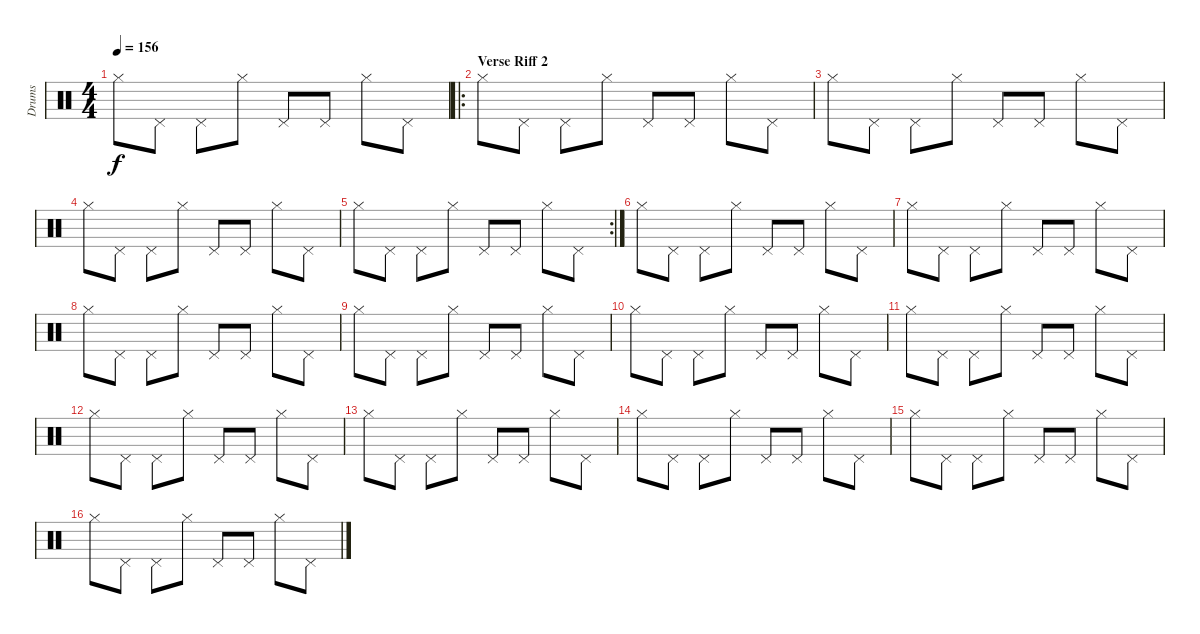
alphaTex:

\track ("Drums" "Drums") {instrument percussion}
\staff {score}
\articulation defaults
\ts (4 4)
\tempo 156
\clef neutral
\ks c "Hi-Hat (closed)".8{dy f} "Pedal Hi-Hat (hit)".8 "Pedal Hi-Hat (hit)".8 "Hi-Hat (closed)".8 "Pedal Hi-Hat (hit)".8 "Pedal Hi-Hat (hit)".8 "Hi-Hat (closed)".8 "Pedal Hi-Hat (hit)".8
|
\ro
\section ("" "Verse Riff 2")
"Hi-Hat (closed)".8 "Pedal Hi-Hat (hit)".8 "Pedal Hi-Hat (hit)".8 "Hi-Hat (closed)".8 "Pedal Hi-Hat (hit)".8 "Pedal Hi-Hat (hit)".8 "Hi-Hat (closed)".8 "Pedal Hi-Hat (hit)".8 |
"Hi-Hat (closed)".8 "Pedal Hi-Hat (hit)".8 "Pedal Hi-Hat (hit)".8 "Hi-Hat (closed)".8 "Pedal Hi-Hat (hit)".8 "Pedal Hi-Hat (hit)".8 "Hi-Hat (closed)".8 "Pedal Hi-Hat (hit)".8 |
"Hi-Hat (closed)".8 "Pedal Hi-Hat (hit)".8 "Pedal Hi-Hat (hit)".8 "Hi-Hat (closed)".8 "Pedal Hi-Hat (hit)".8 "Pedal Hi-Hat (hit)".8 "Hi-Hat (closed)".8 "Pedal Hi-Hat (hit)".8 |
\rc 2 "Hi-Hat (closed)".8 "Pedal Hi-Hat (hit)".8 "Pedal Hi-Hat (hit)".8 "Hi-Hat (closed)".8 "Pedal Hi-Hat (hit)".8 "Pedal Hi-Hat (hit)".8 "Hi-Hat (closed)".8 "Pedal Hi-Hat (hit)".8
|
"Hi-Hat (closed)".8 "Pedal Hi-Hat (hit)".8 "Pedal Hi-Hat (hit)".8 "Hi-Hat (closed)".8 "Pedal Hi-Hat (hit)".8 "Pedal Hi-Hat (hit)".8 "Hi-Hat (closed)".8 "Pedal Hi-Hat (hit)".8 |
"Hi-Hat (closed)".8 "Pedal Hi-Hat (hit)".8 "Pedal Hi-Hat (hit)".8 "Hi-Hat (closed)".8 "Pedal Hi-Hat (hit)".8 "Pedal Hi-Hat (hit)".8 "Hi-Hat (closed)".8 "Pedal Hi-Hat (hit)".8 |
"Hi-Hat (closed)".8 "Pedal Hi-Hat (hit)".8 "Pedal Hi-Hat (hit)".8 "Hi-Hat (closed)".8 "Pedal Hi-Hat (hit)".8 "Pedal Hi-Hat (hit)".8 "Hi-Hat (closed)".8 "Pedal Hi-Hat (hit)".8 |
"Hi-Hat (closed)".8 "Pedal Hi-Hat (hit)".8 "Pedal Hi-Hat (hit)".8 "Hi-Hat (closed)".8 "Pedal Hi-Hat (hit)".8 "Pedal Hi-Hat (hit)".8 "Hi-Hat (closed)".8 "Pedal Hi-Hat (hit)".8 |
"Hi-Hat (closed)".8 "Pedal Hi-Hat (hit)".8 "Pedal Hi-Hat (hit)".8 "Hi-Hat (closed)".8 "Pedal Hi-Hat (hit)".8 "Pedal Hi-Hat (hit)".8 "Hi-Hat (closed)".8 "Pedal Hi-Hat (hit)".8 |
"Hi-Hat (closed)".8 "Pedal Hi-Hat (hit)".8 "Pedal Hi-Hat (hit)".8 "Hi-Hat (closed)".8 "Pedal Hi-Hat (hit)".8 "Pedal Hi-Hat (hit)".8 "Hi-Hat (closed)".8 "Pedal Hi-Hat (hit)".8 |
"Hi-Hat (closed)".8 "Pedal Hi-Hat (hit)".8 "Pedal Hi-Hat (hit)".8 "Hi-Hat (closed)".8 "Pedal Hi-Hat (hit)".8 "Pedal Hi-Hat (hit)".8 "Hi-Hat (closed)".8 "Pedal Hi-Hat (hit)".8 |
"Hi-Hat (closed)".8 "Pedal Hi-Hat (hit)".8 "Pedal Hi-Hat (hit)".8 "Hi-Hat (closed)".8 "Pedal Hi-Hat (hit)".8 "Pedal Hi-Hat (hit)".8 "Hi-Hat (closed)".8 "Pedal Hi-Hat (hit)".8 |
"Hi-Hat (closed)".8 "Pedal Hi-Hat (hit)".8 "Pedal Hi-Hat (hit)".8 "Hi-Hat (closed)".8 "Pedal Hi-Hat (hit)".8 "Pedal Hi-Hat (hit)".8 "Hi-Hat (closed)".8 "Pedal Hi-Hat (hit)".8 |
"Hi-Hat (closed)".8 "Pedal Hi-Hat (hit)".8 "Pedal Hi-Hat (hit)".8 "Hi-Hat (closed)".8 "Pedal Hi-Hat (hit)".8 "Pedal Hi-Hat (hit)".8 "Hi-Hat (closed)".8 "Pedal Hi-Hat (hit)".8 |
"Hi-Hat (closed)".8 "Pedal Hi-Hat (hit)".8 "Pedal Hi-Hat (hit)".8 "Hi-Hat (closed)".8 "Pedal Hi-Hat (hit)".8 "Pedal Hi-Hat (hit)".8 "Hi-Hat (closed)".8 "Pedal Hi-Hat (hit)".8
